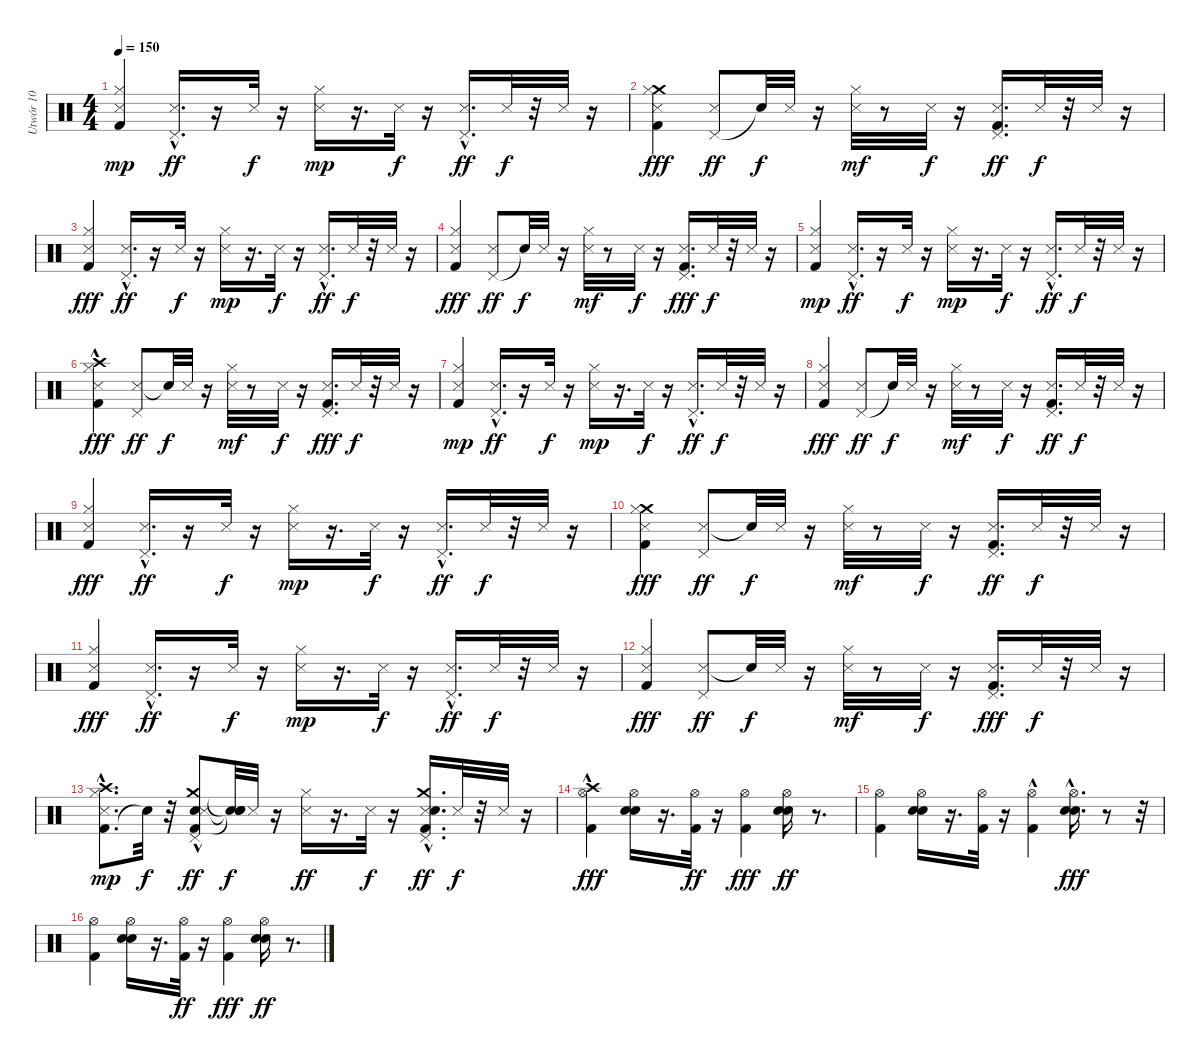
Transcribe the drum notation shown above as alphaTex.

\track ("Utwór 10" "Utwór 10") {instrument percussion}
\staff {score}
\articulation defaults
\ts (4 4)
\tempo 150
\clef neutral
\ks c
("Kick (hit) 2" "Hi-Hat (closed)" "Snare (side stick) 3").4{dy mp} ("Pedal Hi-Hat (hit)"{hac} "Snare (side stick) 3").16{d dy ff} r.16 "Snare (side stick) 3".32{dy f} r.16 ("Snare (side stick) 3" "Hi-Hat (closed)").16{dy mp} r.16{d} "Snare (side stick) 3".32{dy f} r.16 ("Snare (side stick) 3" "Pedal Hi-Hat (hit)"{hac}).16{d dy ff} "Snare (side stick) 3".32{dy f} r.32 "Snare (side stick) 3".32 r.16 |
("Crash medium (hit)" "Hi-Hat (closed)" "Snare (side stick) 3" "Kick (hit) 2").4{dy fff} ("Pedal Hi-Hat (hit)" "Snare (side stick) 3").8{dy ff} "Snare (hit)"{t}.32{dy f} "Snare (side stick) 3".32 r.16 ("Snare (side stick) 3" "Hi-Hat (closed)").32{dy mf} r.8 "Snare (side stick) 3".32{dy f} r.16 ("Kick (hit) 2" "Snare (side stick) 3" "Pedal Hi-Hat (hit)").16{d dy ff} "Snare (side stick) 3".32{dy f} r.32 "Snare (side stick) 3".32 r.16 |
("Snare (side stick) 3" "Hi-Hat (closed)" "Kick (hit) 2").4{dy fff} ("Snare (side stick) 3" "Pedal Hi-Hat (hit)"{hac}).16{d dy ff} r.16 "Snare (side stick) 3".32{dy f} r.16 ("Snare (side stick) 3" "Hi-Hat (closed)").16{dy mp} r.16{d} "Snare (side stick) 3".32{dy f} r.16 ("Pedal Hi-Hat (hit)"{hac} "Snare (side stick) 3").16{d dy ff} "Snare (side stick) 3".32{dy f} r.32 "Snare (side stick) 3".32 r.16 |
("Hi-Hat (closed)" "Kick (hit) 2" "Snare (side stick) 3").4{dy fff} ("Pedal Hi-Hat (hit)" "Snare (side stick) 3").8{dy ff} "Snare (hit)"{t}.32{dy f} "Snare (side stick) 3".32 r.16 ("Hi-Hat (closed)" "Snare (side stick) 3").32{dy mf} r.8 "Snare (side stick) 3".32{dy f} r.16 ("Pedal Hi-Hat (hit)" "Kick (hit) 2" "Snare (side stick) 3").16{d dy fff} "Snare (side stick) 3".32{dy f} r.32 "Snare (side stick) 3".32 r.16 |
("Kick (hit) 2" "Hi-Hat (closed)" "Snare (side stick) 3").4{dy mp} ("Snare (side stick) 3" "Pedal Hi-Hat (hit)"{hac}).16{d dy ff} r.16 "Snare (side stick) 3".32{dy f} r.16 ("Snare (side stick) 3" "Hi-Hat (closed)").16{dy mp} r.16{d} "Snare (side stick) 3".32{dy f} r.16 ("Snare (side stick) 3" "Pedal Hi-Hat (hit)"{hac}).16{d dy ff} "Snare (side stick) 3".32{dy f} r.32 "Snare (side stick) 3".32 r.16 |
("Crash high (hit)"{hac} "Snare (side stick) 3" "Hi-Hat (closed)" "Kick (hit) 2").4{dy fff} ("Snare (side stick) 3" "Pedal Hi-Hat (hit)").8{dy ff} "Snare (hit)"{t}.32{dy f} "Snare (side stick) 3".32 r.16 ("Snare (side stick) 3" "Hi-Hat (closed)").32{dy mf} r.8 "Snare (side stick) 3".32{dy f} r.16 ("Pedal Hi-Hat (hit)" "Kick (hit) 2" "Snare (side stick) 3").16{d dy fff} "Snare (side stick) 3".32{dy f} r.32 "Snare (side stick) 3".32 r.16 |
("Kick (hit) 2" "Snare (side stick) 3" "Hi-Hat (closed)").4{dy mp} ("Snare (side stick) 3" "Pedal Hi-Hat (hit)"{hac}).16{d dy ff} r.16 "Snare (side stick) 3".32{dy f} r.16 ("Snare (side stick) 3" "Hi-Hat (closed)").16{dy mp} r.16{d} "Snare (side stick) 3".32{dy f} r.16 ("Snare (side stick) 3" "Pedal Hi-Hat (hit)"{hac}).16{d dy ff} "Snare (side stick) 3".32{dy f} r.32 "Snare (side stick) 3".32 r.16 |
("Snare (side stick) 3" "Hi-Hat (closed)" "Kick (hit) 2").4{dy fff} ("Pedal Hi-Hat (hit)" "Snare (side stick) 3").8{dy ff} "Snare (hit)"{t}.32{dy f} "Snare (side stick) 3".32 r.16 ("Snare (side stick) 3" "Hi-Hat (closed)").32{dy mf} r.8 "Snare (side stick) 3".32{dy f} r.16 ("Kick (hit) 2" "Snare (side stick) 3" "Pedal Hi-Hat (hit)").16{d dy ff} "Snare (side stick) 3".32{dy f} r.32 "Snare (side stick) 3".32 r.16 |
("Hi-Hat (closed)" "Snare (side stick) 3" "Kick (hit) 2").4{dy fff} ("Snare (side stick) 3" "Pedal Hi-Hat (hit)"{hac}).16{d dy ff} r.16 "Snare (side stick) 3".32{dy f} r.16 ("Snare (side stick) 3" "Hi-Hat (closed)").16{dy mp} r.16{d} "Snare (side stick) 3".32{dy f} r.16 ("Snare (side stick) 3" "Pedal Hi-Hat (hit)"{hac}).16{d dy ff} "Snare (side stick) 3".32{dy f} r.32 "Snare (side stick) 3".32 r.16 |
("Crash medium (hit)" "Hi-Hat (closed)" "Snare (side stick) 3" "Kick (hit) 2").4{dy fff} ("Snare (side stick) 3" "Pedal Hi-Hat (hit)").8{dy ff} "Snare (hit)"{t}.32{dy f} "Snare (side stick) 3".32 r.16 ("Hi-Hat (closed)" "Snare (side stick) 3").32{dy mf} r.8 "Snare (side stick) 3".32{dy f} r.16 ("Snare (side stick) 3" "Kick (hit) 2" "Pedal Hi-Hat (hit)").16{d dy ff} "Snare (side stick) 3".32{dy f} r.32 "Snare (side stick) 3".32 r.16 |
("Snare (side stick) 3" "Hi-Hat (closed)" "Kick (hit) 2").4{dy fff} ("Pedal Hi-Hat (hit)"{hac} "Snare (side stick) 3").16{d dy ff} r.16 "Snare (side stick) 3".32{dy f} r.16 ("Snare (side stick) 3" "Hi-Hat (closed)").16{dy mp} r.16{d} "Snare (side stick) 3".32{dy f} r.16 ("Snare (side stick) 3" "Pedal Hi-Hat (hit)"{hac}).16{d dy ff} "Snare (side stick) 3".32{dy f} r.32 "Snare (side stick) 3".32 r.16 |
("Kick (hit) 2" "Hi-Hat (closed)" "Snare (side stick) 3").4{dy fff} ("Snare (side stick) 3" "Pedal Hi-Hat (hit)").8{dy ff} "Snare (hit)"{t}.32{dy f} "Snare (side stick) 3".32 r.16 ("Hi-Hat (closed)" "Snare (side stick) 3").32{dy mf} r.8 "Snare (side stick) 3".32{dy f} r.16 ("Pedal Hi-Hat (hit)" "Snare (side stick) 3" "Kick (hit) 2").16{d dy fff} "Snare (side stick) 3".32{dy f} r.32 "Snare (side stick) 3".32 r.16 |
("Kick (hit) 2"{hac} "Snare (side stick) 3" "Crash high (hit)"{hac} "Hi-Hat (closed)").8{d dy mp} "Snare (hit)"{t}.32{dy f} r.32 ("Crash medium (hit)" "Kick (hit) 2" "Snare (hit) 2" "Snare (side stick) 3" "Pedal Hi-Hat (hit)"{hac}).8{dy ff} ("Snare (hit)"{t} "Snare (hit)"{t} "Snare (hit)"{t}).32{dy f} "Snare (side stick) 3".32 r.16 ("Hi-Hat (closed)" "Snare (side stick) 3").16{dy ff} r.16{d} "Snare (side stick) 3".32{dy f} r.16 ("Kick (hit) 2"{hac} "Snare (side stick) 3" "Crash medium (hit)" "Snare (hit) 2"{hac} "Pedal Hi-Hat (hit)"{hac}).16{d dy ff} "Snare (side stick) 3".32{dy f} r.32 "Snare (side stick) 3".32 r.16 |
("Crash high (hit)"{hac} "Hi-Hat (open)" "Kick (hit) 2").4{dy fff} ("Hand Clap (hit)" "Snare (hit) 2" "Hi-Hat (open)").16 r.16{d} ("Hi-Hat (open)" "Kick (hit) 2").32{dy ff} r.16 ("Kick (hit) 2" "Hi-Hat (open)").4{dy fff} ("Snare (hit) 2" "Hand Clap (hit)" "Hi-Hat (open)").16{dy ff} r.8{d} |
("Kick (hit) 2" "Hi-Hat (open)").4 ("Snare (hit) 2" "Hand Clap (hit)" "Hi-Hat (open)").16 r.16{d} ("Hi-Hat (open)" "Kick (hit) 2").32 r.16 ("Hi-Hat (open)" "Kick (hit) 2"{hac}).4 ("Snare (hit) 2" "Hi-Hat (open)" "Hand Clap (hit)"{hac}).16{d dy fff} r.8 r.32 |
("Hi-Hat (open)" "Kick (hit) 2").4 ("Hi-Hat (open)" "Hand Clap (hit)" "Snare (hit) 2").16 r.16{d} ("Kick (hit) 2" "Hi-Hat (open)").32{dy ff} r.16 ("Hi-Hat (open)" "Kick (hit) 2").4{dy fff} ("Snare (hit) 2" "Hand Clap (hit)" "Hi-Hat (open)").16{dy ff} r.8{d}
